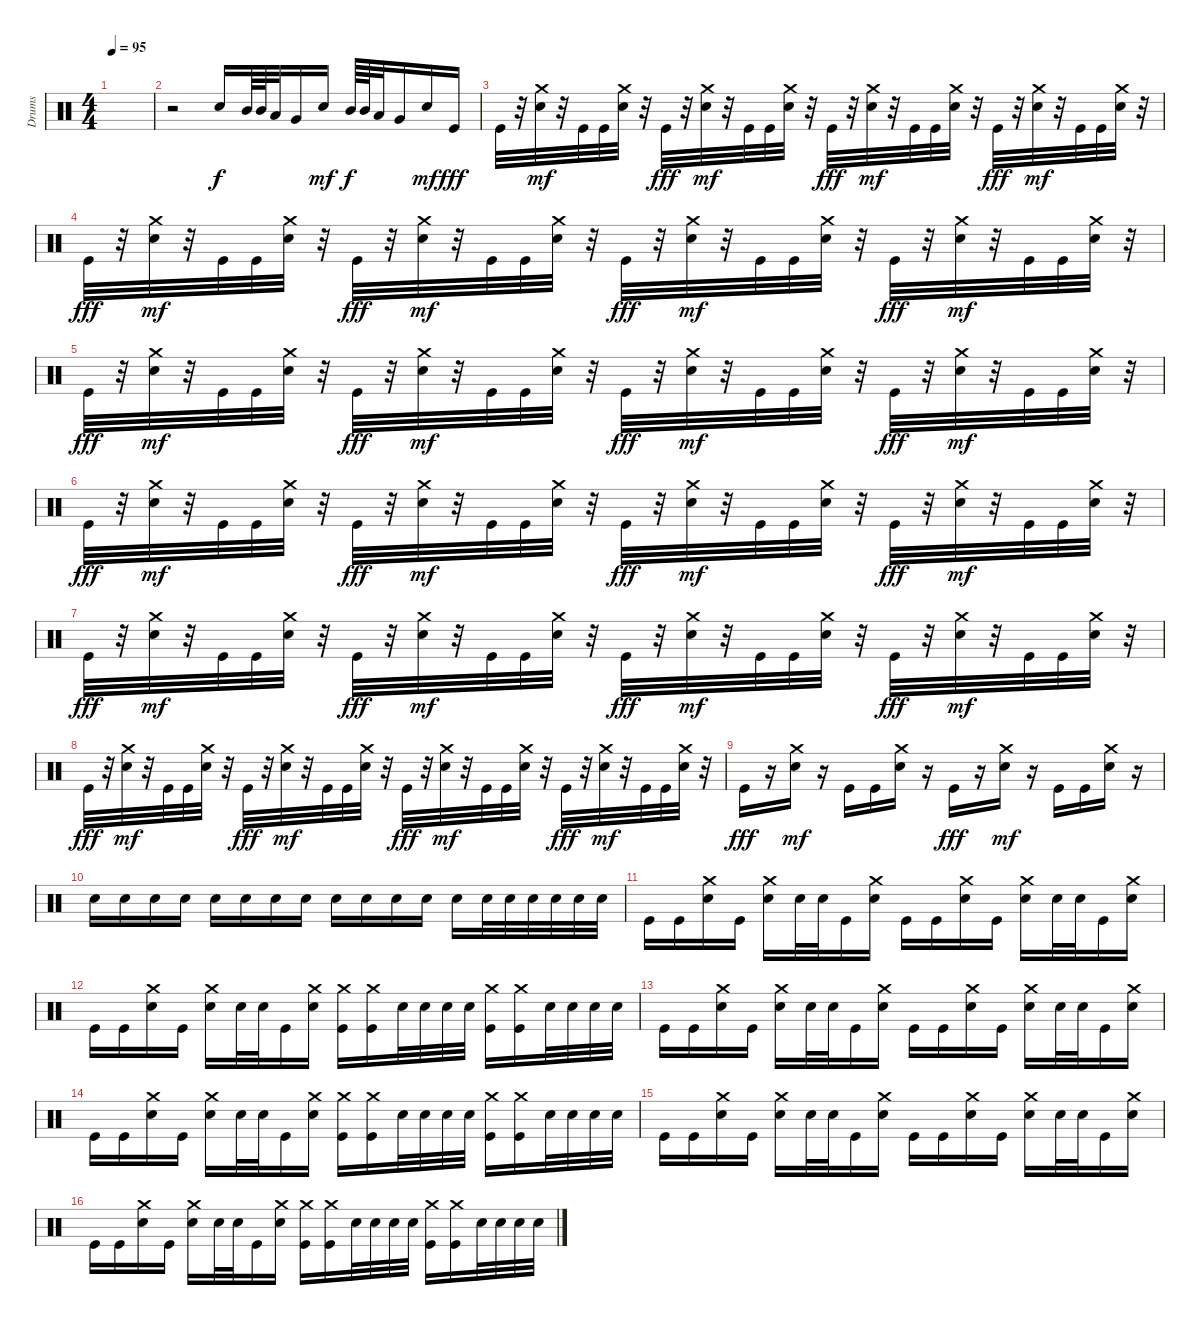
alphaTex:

\track ("Drums" "Drums") {instrument percussion}
\staff {score}
\articulation defaults
\ts (4 4)
\tempo 95
\clef neutral
\ks c
|
r.2 "Snare (hit) 2".16 "Mid Tom (hit)".64{dy f} "Mid Tom (hit)".64 "Low Tom (hit)".32 "Very Low Tom (hit)".16 "Snare (hit) 2".16{dy mf} "Mid Tom (hit)".64{dy f} "Mid Tom (hit)".64 "Low Tom (hit)".32 "Very Low Tom (hit)".16 "Snare (hit) 2".16{dy mf} "Kick (hit)".16{dy fff} |
"Kick (hit)".32 r.32 ("Crash medium (hit)" "Snare (hit) 2").32{dy mf} r.32 "Kick (hit)".32 "Kick (hit)".32 ("Crash medium (hit)" "Snare (hit) 2").32 r.32 "Kick (hit)".32{dy fff} r.32 ("Crash medium (hit)" "Snare (hit) 2").32{dy mf} r.32 "Kick (hit)".32 "Kick (hit)".32 ("Crash medium (hit)" "Snare (hit) 2").32 r.32 "Kick (hit)".32{dy fff} r.32 ("Crash medium (hit)" "Snare (hit) 2").32{dy mf} r.32 "Kick (hit)".32 "Kick (hit)".32 ("Crash medium (hit)" "Snare (hit) 2").32 r.32 "Kick (hit)".32{dy fff} r.32 ("Crash medium (hit)" "Snare (hit) 2").32{dy mf} r.32 "Kick (hit)".32 "Kick (hit)".32 ("Crash medium (hit)" "Snare (hit) 2").32 r.32 |
"Kick (hit)".32{dy fff} r.32 ("Crash medium (hit)" "Snare (hit) 2").32{dy mf} r.32 "Kick (hit)".32 "Kick (hit)".32 ("Crash medium (hit)" "Snare (hit) 2").32 r.32 "Kick (hit)".32{dy fff} r.32 ("Crash medium (hit)" "Snare (hit) 2").32{dy mf} r.32 "Kick (hit)".32 "Kick (hit)".32 ("Crash medium (hit)" "Snare (hit) 2").32 r.32 "Kick (hit)".32{dy fff} r.32 ("Crash medium (hit)" "Snare (hit) 2").32{dy mf} r.32 "Kick (hit)".32 "Kick (hit)".32 ("Crash medium (hit)" "Snare (hit) 2").32 r.32 "Kick (hit)".32{dy fff} r.32 ("Crash medium (hit)" "Snare (hit) 2").32{dy mf} r.32 "Kick (hit)".32 "Kick (hit)".32 ("Crash medium (hit)" "Snare (hit) 2").32 r.32 |
"Kick (hit)".32{dy fff} r.32 ("Crash medium (hit)" "Snare (hit) 2").32{dy mf} r.32 "Kick (hit)".32 "Kick (hit)".32 ("Crash medium (hit)" "Snare (hit) 2").32 r.32 "Kick (hit)".32{dy fff} r.32 ("Crash medium (hit)" "Snare (hit) 2").32{dy mf} r.32 "Kick (hit)".32 "Kick (hit)".32 ("Crash medium (hit)" "Snare (hit) 2").32 r.32 "Kick (hit)".32{dy fff} r.32 ("Crash medium (hit)" "Snare (hit) 2").32{dy mf} r.32 "Kick (hit)".32 "Kick (hit)".32 ("Crash medium (hit)" "Snare (hit) 2").32 r.32 "Kick (hit)".32{dy fff} r.32 ("Crash medium (hit)" "Snare (hit) 2").32{dy mf} r.32 "Kick (hit)".32 "Kick (hit)".32 ("Crash medium (hit)" "Snare (hit) 2").32 r.32 |
"Kick (hit)".32{dy fff} r.32 ("Crash medium (hit)" "Snare (hit) 2").32{dy mf} r.32 "Kick (hit)".32 "Kick (hit)".32 ("Crash medium (hit)" "Snare (hit) 2").32 r.32 "Kick (hit)".32{dy fff} r.32 ("Crash medium (hit)" "Snare (hit) 2").32{dy mf} r.32 "Kick (hit)".32 "Kick (hit)".32 ("Crash medium (hit)" "Snare (hit) 2").32 r.32 "Kick (hit)".32{dy fff} r.32 ("Crash medium (hit)" "Snare (hit) 2").32{dy mf} r.32 "Kick (hit)".32 "Kick (hit)".32 ("Crash medium (hit)" "Snare (hit) 2").32 r.32 "Kick (hit)".32{dy fff} r.32 ("Crash medium (hit)" "Snare (hit) 2").32{dy mf} r.32 "Kick (hit)".32 "Kick (hit)".32 ("Crash medium (hit)" "Snare (hit) 2").32 r.32 |
"Kick (hit)".32{dy fff} r.32 ("Crash medium (hit)" "Snare (hit) 2").32{dy mf} r.32 "Kick (hit)".32 "Kick (hit)".32 ("Crash medium (hit)" "Snare (hit) 2").32 r.32 "Kick (hit)".32{dy fff} r.32 ("Crash medium (hit)" "Snare (hit) 2").32{dy mf} r.32 "Kick (hit)".32 "Kick (hit)".32 ("Crash medium (hit)" "Snare (hit) 2").32 r.32 "Kick (hit)".32{dy fff} r.32 ("Crash medium (hit)" "Snare (hit) 2").32{dy mf} r.32 "Kick (hit)".32 "Kick (hit)".32 ("Crash medium (hit)" "Snare (hit) 2").32 r.32 "Kick (hit)".32{dy fff} r.32 ("Crash medium (hit)" "Snare (hit) 2").32{dy mf} r.32 "Kick (hit)".32 "Kick (hit)".32 ("Crash medium (hit)" "Snare (hit) 2").32 r.32 |
"Kick (hit)".32{dy fff} r.32 ("Crash medium (hit)" "Snare (hit) 2").32{dy mf} r.32 "Kick (hit)".32 "Kick (hit)".32 ("Crash medium (hit)" "Snare (hit) 2").32 r.32 "Kick (hit)".32{dy fff} r.32 ("Crash medium (hit)" "Snare (hit) 2").32{dy mf} r.32 "Kick (hit)".32 "Kick (hit)".32 ("Crash medium (hit)" "Snare (hit) 2").32 r.32 "Kick (hit)".32{dy fff} r.32 ("Crash medium (hit)" "Snare (hit) 2").32{dy mf} r.32 "Kick (hit)".32 "Kick (hit)".32 ("Crash medium (hit)" "Snare (hit) 2").32 r.32 "Kick (hit)".32{dy fff} r.32 ("Crash medium (hit)" "Snare (hit) 2").32{dy mf} r.32 "Kick (hit)".32 "Kick (hit)".32 ("Crash medium (hit)" "Snare (hit) 2").32 r.32 |
"Kick (hit)".16{dy fff} r.16 ("Crash medium (hit)" "Snare (hit) 2").16{dy mf} r.16 "Kick (hit)".16 "Kick (hit)".16 ("Crash medium (hit)" "Snare (hit) 2").16 r.16 "Kick (hit)".16{dy fff} r.16 ("Crash medium (hit)" "Snare (hit) 2").16{dy mf} r.16 "Kick (hit)".16 "Kick (hit)".16 ("Crash medium (hit)" "Snare (hit) 2").16 r.16 |
"Snare (hit) 2".16 "Snare (hit) 2".16 "Snare (hit) 2".16 "Snare (hit) 2".16 "Snare (hit) 2".16 "Snare (hit) 2".16 "Snare (hit) 2".16 "Snare (hit) 2".16 "Snare (hit) 2".16 "Snare (hit) 2".16 "Snare (hit) 2".16 "Snare (hit) 2".16 "Snare (hit) 2".16 "Snare (hit) 2".32 "Snare (hit) 2".32 "Snare (hit) 2".32 "Snare (hit) 2".32 "Snare (hit) 2".32 "Snare (hit) 2".32 |
"Kick (hit)".16 "Kick (hit)".16 ("Crash medium (hit)" "Snare (hit) 2").16 "Kick (hit)".16 ("Crash medium (hit)" "Snare (hit) 2").16 "Snare (hit) 2".32 "Snare (hit) 2".32 "Kick (hit)".16 ("Crash medium (hit)" "Snare (hit) 2").16 "Kick (hit)".16 "Kick (hit)".16 ("Crash medium (hit)" "Snare (hit) 2").16 "Kick (hit)".16 ("Crash medium (hit)" "Snare (hit) 2").16 "Snare (hit) 2".32 "Snare (hit) 2".32 "Kick (hit)".16 ("Crash medium (hit)" "Snare (hit) 2").16 |
"Kick (hit)".16 "Kick (hit)".16 ("Crash medium (hit)" "Snare (hit) 2").16 "Kick (hit)".16 ("Crash medium (hit)" "Snare (hit) 2").16 "Snare (hit) 2".32 "Snare (hit) 2".32 "Kick (hit)".16 ("Crash medium (hit)" "Snare (hit) 2").16 ("Crash medium (hit)" "Kick (hit)").16 ("Crash medium (hit)" "Kick (hit)").16 "Snare (hit) 2".32 "Snare (hit) 2".32 "Snare (hit) 2".32 "Snare (hit) 2".32 ("Crash medium (hit)" "Kick (hit)").16 ("Crash medium (hit)" "Kick (hit)").16 "Snare (hit) 2".32 "Snare (hit) 2".32 "Snare (hit) 2".32 "Snare (hit) 2".32 |
"Kick (hit)".16 "Kick (hit)".16 ("Crash medium (hit)" "Snare (hit) 2").16 "Kick (hit)".16 ("Crash medium (hit)" "Snare (hit) 2").16 "Snare (hit) 2".32 "Snare (hit) 2".32 "Kick (hit)".16 ("Crash medium (hit)" "Snare (hit) 2").16 "Kick (hit)".16 "Kick (hit)".16 ("Crash medium (hit)" "Snare (hit) 2").16 "Kick (hit)".16 ("Crash medium (hit)" "Snare (hit) 2").16 "Snare (hit) 2".32 "Snare (hit) 2".32 "Kick (hit)".16 ("Crash medium (hit)" "Snare (hit) 2").16 |
"Kick (hit)".16 "Kick (hit)".16 ("Crash medium (hit)" "Snare (hit) 2").16 "Kick (hit)".16 ("Crash medium (hit)" "Snare (hit) 2").16 "Snare (hit) 2".32 "Snare (hit) 2".32 "Kick (hit)".16 ("Crash medium (hit)" "Snare (hit) 2").16 ("Crash medium (hit)" "Kick (hit)").16 ("Crash medium (hit)" "Kick (hit)").16 "Snare (hit) 2".32 "Snare (hit) 2".32 "Snare (hit) 2".32 "Snare (hit) 2".32 ("Crash medium (hit)" "Kick (hit)").16 ("Crash medium (hit)" "Kick (hit)").16 "Snare (hit) 2".32 "Snare (hit) 2".32 "Snare (hit) 2".32 "Snare (hit) 2".32 |
"Kick (hit)".16 "Kick (hit)".16 ("Crash medium (hit)" "Snare (hit) 2").16 "Kick (hit)".16 ("Crash medium (hit)" "Snare (hit) 2").16 "Snare (hit) 2".32 "Snare (hit) 2".32 "Kick (hit)".16 ("Crash medium (hit)" "Snare (hit) 2").16 "Kick (hit)".16 "Kick (hit)".16 ("Crash medium (hit)" "Snare (hit) 2").16 "Kick (hit)".16 ("Crash medium (hit)" "Snare (hit) 2").16 "Snare (hit) 2".32 "Snare (hit) 2".32 "Kick (hit)".16 ("Crash medium (hit)" "Snare (hit) 2").16 |
"Kick (hit)".16 "Kick (hit)".16 ("Crash medium (hit)" "Snare (hit) 2").16 "Kick (hit)".16 ("Crash medium (hit)" "Snare (hit) 2").16 "Snare (hit) 2".32 "Snare (hit) 2".32 "Kick (hit)".16 ("Crash medium (hit)" "Snare (hit) 2").16 ("Crash medium (hit)" "Kick (hit)").16 ("Crash medium (hit)" "Kick (hit)").16 "Snare (hit) 2".32 "Snare (hit) 2".32 "Snare (hit) 2".32 "Snare (hit) 2".32 ("Crash medium (hit)" "Kick (hit)").16 ("Crash medium (hit)" "Kick (hit)").16 "Snare (hit) 2".32 "Snare (hit) 2".32 "Snare (hit) 2".32 "Snare (hit) 2".32
